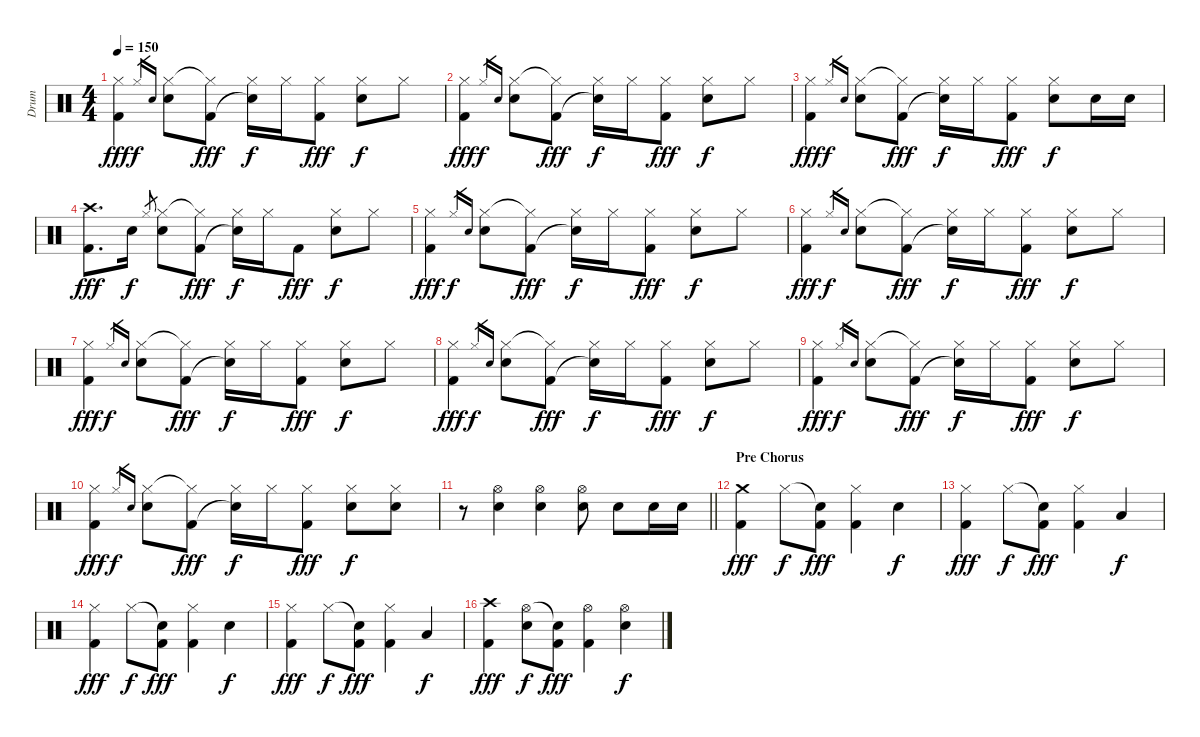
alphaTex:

\track ("Drum" "Drum") {instrument percussion}
\staff {score}
\articulation defaults
\ts (4 4)
\tempo 150
\clef neutral
\ks c
("Hi-Hat (closed)" "Kick (hit) 2").4{dy fff} "Hi-Hat (closed)".16{gr dy f} "Snare (hit) 2".16{gr} ("Hi-Hat (closed)" "Snare (hit) 2").8 ("Hi-Hat (closed)"{t} "Kick (hit) 2").8{dy fff} ("Hi-Hat (closed)" "Snare (hit)"{t}).16{dy f} "Hi-Hat (closed)".16 ("Hi-Hat (closed)" "Kick (hit) 2").8{dy fff} ("Hi-Hat (closed)" "Snare (hit) 2").8{dy f} "Hi-Hat (closed)".8 |
("Hi-Hat (closed)" "Kick (hit) 2").4{dy fff} "Hi-Hat (closed)".16{gr dy f} "Snare (hit) 2".16{gr} ("Hi-Hat (closed)" "Snare (hit) 2").8 ("Hi-Hat (closed)"{t} "Kick (hit) 2").8{dy fff} ("Hi-Hat (closed)" "Snare (hit)"{t}).16{dy f} "Hi-Hat (closed)".16 ("Hi-Hat (closed)" "Kick (hit) 2").8{dy fff} ("Hi-Hat (closed)" "Snare (hit) 2").8{dy f} "Hi-Hat (closed)".8 |
("Hi-Hat (closed)" "Kick (hit) 2").4{dy fff} "Hi-Hat (closed)".16{gr dy f} "Snare (hit) 2".16{gr} ("Hi-Hat (closed)" "Snare (hit) 2").8 ("Hi-Hat (closed)"{t} "Kick (hit) 2").8{dy fff} ("Hi-Hat (closed)" "Snare (hit)"{t}).16{dy f} "Hi-Hat (closed)".16 ("Hi-Hat (closed)" "Kick (hit) 2").8{dy fff} ("Hi-Hat (closed)" "Snare (hit) 2").8{dy f} "Snare (hit) 2".16 "Snare (hit) 2".16 |
("Crash high (hit)" "Kick (hit) 2").8{d dy fff} "Snare (hit) 2".16{dy f} "Hi-Hat (closed)".8{gr} ("Hi-Hat (closed)" "Snare (hit) 2").8 ("Hi-Hat (closed)"{t} "Kick (hit) 2").8{dy fff} ("Hi-Hat (closed)" "Snare (hit)"{t}).16{dy f} "Hi-Hat (closed)".16 "Kick (hit) 2".8{dy fff} ("Hi-Hat (closed)" "Snare (hit) 2").8{dy f} "Hi-Hat (closed)".8 |
("Hi-Hat (closed)" "Kick (hit) 2").4{dy fff} "Hi-Hat (closed)".16{gr dy f} "Snare (hit) 2".16{gr} ("Hi-Hat (closed)" "Snare (hit) 2").8 ("Hi-Hat (closed)"{t} "Kick (hit) 2").8{dy fff} ("Hi-Hat (closed)" "Snare (hit)"{t}).16{dy f} "Hi-Hat (closed)".16 ("Hi-Hat (closed)" "Kick (hit) 2").8{dy fff} ("Hi-Hat (closed)" "Snare (hit) 2").8{dy f} "Hi-Hat (closed)".8 |
("Hi-Hat (closed)" "Kick (hit) 2").4{dy fff} "Hi-Hat (closed)".16{gr dy f} "Snare (hit) 2".16{gr} ("Hi-Hat (closed)" "Snare (hit) 2").8 ("Hi-Hat (closed)"{t} "Kick (hit) 2").8{dy fff} ("Hi-Hat (closed)" "Snare (hit)"{t}).16{dy f} "Hi-Hat (closed)".16 ("Hi-Hat (closed)" "Kick (hit) 2").8{dy fff} ("Hi-Hat (closed)" "Snare (hit) 2").8{dy f} "Hi-Hat (closed)".8 |
("Hi-Hat (closed)" "Kick (hit) 2").4{dy fff} "Hi-Hat (closed)".16{gr dy f} "Snare (hit) 2".16{gr} ("Hi-Hat (closed)" "Snare (hit) 2").8 ("Hi-Hat (closed)"{t} "Kick (hit) 2").8{dy fff} ("Hi-Hat (closed)" "Snare (hit)"{t}).16{dy f} "Hi-Hat (closed)".16 ("Hi-Hat (closed)" "Kick (hit) 2").8{dy fff} ("Hi-Hat (closed)" "Snare (hit) 2").8{dy f} "Hi-Hat (closed)".8 |
("Hi-Hat (closed)" "Kick (hit) 2").4{dy fff} "Hi-Hat (closed)".16{gr dy f} "Snare (hit) 2".16{gr} ("Hi-Hat (closed)" "Snare (hit) 2").8 ("Hi-Hat (closed)"{t} "Kick (hit) 2").8{dy fff} ("Hi-Hat (closed)" "Snare (hit)"{t}).16{dy f} "Hi-Hat (closed)".16 ("Hi-Hat (closed)" "Kick (hit) 2").8{dy fff} ("Hi-Hat (closed)" "Snare (hit) 2").8{dy f} "Hi-Hat (closed)".8 |
("Hi-Hat (closed)" "Kick (hit) 2").4{dy fff} "Hi-Hat (closed)".16{gr dy f} "Snare (hit) 2".16{gr} ("Hi-Hat (closed)" "Snare (hit) 2").8 ("Hi-Hat (closed)"{t} "Kick (hit) 2").8{dy fff} ("Hi-Hat (closed)" "Snare (hit)"{t}).16{dy f} "Hi-Hat (closed)".16 ("Hi-Hat (closed)" "Kick (hit) 2").8{dy fff} ("Hi-Hat (closed)" "Snare (hit) 2").8{dy f} "Hi-Hat (closed)".8 |
("Hi-Hat (closed)" "Kick (hit) 2").4{dy fff} "Hi-Hat (closed)".16{gr dy f} "Snare (hit) 2".16{gr} ("Hi-Hat (closed)" "Snare (hit) 2").8 ("Hi-Hat (closed)"{t} "Kick (hit) 2").8{dy fff} ("Hi-Hat (closed)" "Snare (hit)"{t}).16{dy f} "Hi-Hat (closed)".16 ("Hi-Hat (closed)" "Kick (hit) 2").8{dy fff} ("Hi-Hat (closed)" "Snare (hit) 2").8{dy f} ("Hi-Hat (closed)" "Snare (hit) 2").8 |
\barLineRight lightlight
r.8 ("Hi-Hat (open)" "Snare (hit) 2").4 ("Hi-Hat (open)" "Snare (hit) 2").4 ("Hi-Hat (open)" "Snare (hit) 2").8 "Snare (hit) 2".8 "Snare (hit) 2".16 "Snare (hit) 2".16 |
\section ("" "Pre Chorus")
("Crash medium (hit)" "Kick (hit) 2").4{dy fff} "Hi-Hat (closed)".8{dy f} ("Snare (hit)"{t} "Kick (hit) 2").8{dy fff} ("Hi-Hat (closed)" "Kick (hit) 2").4 "Snare (hit) 2".4{dy f} |
("Hi-Hat (closed)" "Kick (hit) 2").4{dy fff} "Hi-Hat (closed)".8{dy f} ("Snare (hit)"{t} "Kick (hit) 2").8{dy fff} ("Hi-Hat (closed)" "Kick (hit) 2").4 "Low Floor Tom (hit)".4{dy f} |
("Hi-Hat (closed)" "Kick (hit) 2").4{dy fff} "Hi-Hat (closed)".8{dy f} ("Snare (hit)"{t} "Kick (hit) 2").8{dy fff} ("Hi-Hat (closed)" "Kick (hit) 2").4 "Snare (hit) 2".4{dy f} |
("Hi-Hat (closed)" "Kick (hit) 2").4{dy fff} "Hi-Hat (closed)".8{dy f} ("Snare (hit)"{t} "Kick (hit) 2").8{dy fff} ("Hi-Hat (closed)" "Kick (hit) 2").4 "Low Floor Tom (hit)".4{dy f} |
("Crash high (hit)" "Kick (hit) 2").4{dy fff} ("Hi-Hat (open)" "Snare (hit) 2").8{dy f} ("Snare (hit)"{t} "Kick (hit) 2").8{dy fff} ("Hi-Hat (open)" "Kick (hit) 2").4 ("Hi-Hat (open)" "Snare (hit) 2").4{dy f}
